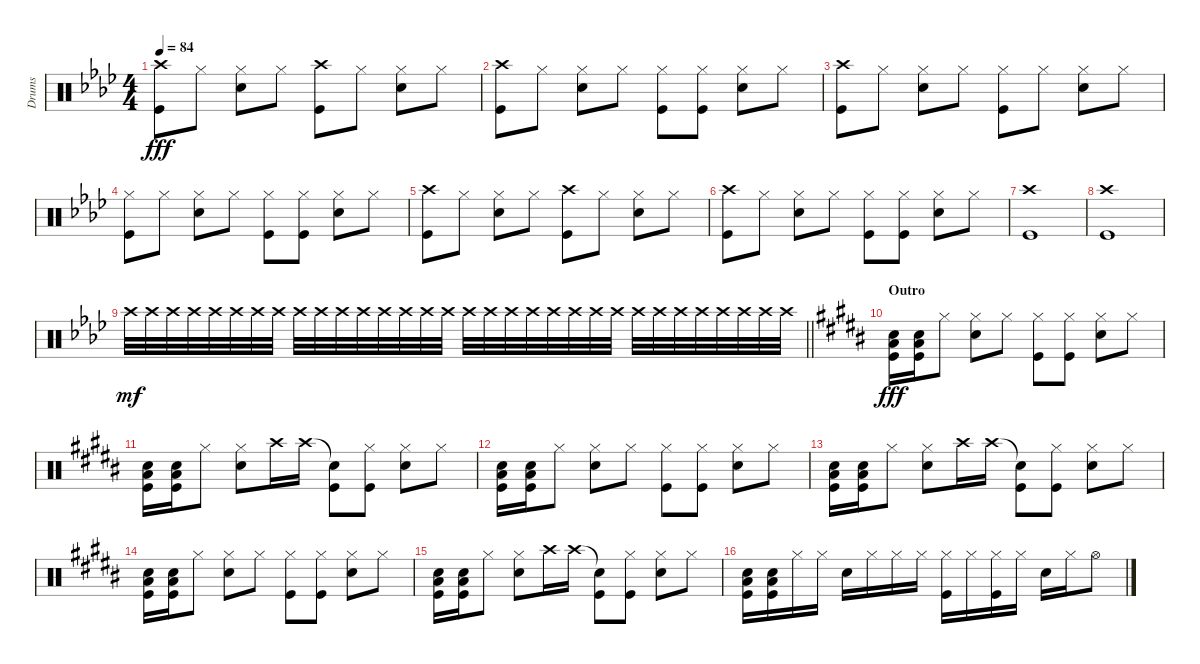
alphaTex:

\track ("Drums" "Drums") {instrument percussion}
\staff {score}
\articulation defaults
\ts (4 4)
\tempo 84
\clef neutral
\ks ab
("Crash high (hit)" "Kick (hit)").8{dy fff} "Hi-Hat (closed)".8 ("Hi-Hat (closed)" "Snare (hit) 2").8 "Hi-Hat (closed)".8 ("Crash high (hit)" "Kick (hit)").8 "Hi-Hat (closed)".8 ("Hi-Hat (closed)" "Snare (hit) 2").8 "Hi-Hat (closed)".8 |
("Crash high (hit)" "Kick (hit)").8 "Hi-Hat (closed)".8 ("Hi-Hat (closed)" "Snare (hit) 2").8 "Hi-Hat (closed)".8 ("Hi-Hat (closed)" "Kick (hit)").8 ("Hi-Hat (closed)" "Kick (hit)").8 ("Hi-Hat (closed)" "Snare (hit) 2").8 "Hi-Hat (closed)".8 |
("Crash high (hit)" "Kick (hit)").8 "Hi-Hat (closed)".8 ("Hi-Hat (closed)" "Snare (hit) 2").8 "Hi-Hat (closed)".8 ("Hi-Hat (closed)" "Kick (hit)").8 "Hi-Hat (closed)".8 ("Hi-Hat (closed)" "Snare (hit) 2").8 "Hi-Hat (closed)".8 |
("Hi-Hat (closed)" "Kick (hit)").8 "Hi-Hat (closed)".8 ("Hi-Hat (closed)" "Snare (hit) 2").8 "Hi-Hat (closed)".8 ("Hi-Hat (closed)" "Kick (hit)").8 ("Hi-Hat (closed)" "Kick (hit)").8 ("Hi-Hat (closed)" "Snare (hit) 2").8 "Hi-Hat (closed)".8 |
("Crash high (hit)" "Kick (hit)").8 "Hi-Hat (closed)".8 ("Hi-Hat (closed)" "Snare (hit) 2").8 "Hi-Hat (closed)".8 ("Crash high (hit)" "Kick (hit)").8 "Hi-Hat (closed)".8 ("Hi-Hat (closed)" "Snare (hit) 2").8 "Hi-Hat (closed)".8 |
("Crash high (hit)" "Kick (hit)").8 "Hi-Hat (closed)".8 ("Hi-Hat (closed)" "Snare (hit) 2").8 "Hi-Hat (closed)".8 ("Hi-Hat (closed)" "Kick (hit)").8 ("Hi-Hat (closed)" "Kick (hit)").8 ("Hi-Hat (closed)" "Snare (hit) 2").8 "Hi-Hat (closed)".8 |
("Crash high (hit)" "Kick (hit)").1 |
("Crash high (hit)" "Kick (hit)").1 |
\barLineRight lightlight "Crash high (hit)".32{dy mf} "Crash high (hit)".32 "Crash high (hit)".32 "Crash high (hit)".32 "Crash high (hit)".32 "Crash high (hit)".32 "Crash high (hit)".32 "Crash high (hit)".32 "Crash high (hit)".32 "Crash high (hit)".32 "Crash high (hit)".32 "Crash high (hit)".32 "Crash high (hit)".32 "Crash high (hit)".32 "Crash high (hit)".32 "Crash high (hit)".32 "Crash high (hit)".32 "Crash high (hit)".32 "Crash high (hit)".32 "Crash high (hit)".32 "Crash high (hit)".32 "Crash high (hit)".32 "Crash high (hit)".32 "Crash high (hit)".32 "Crash high (hit)".32 "Crash high (hit)".32 "Crash high (hit)".32 "Crash high (hit)".32 "Crash high (hit)".32 "Crash high (hit)".32 "Crash high (hit)".32 "Crash high (hit)".32
|
\section ("" "Outro")
\ks b
("Low Floor Tom (hit)" "Snare (hit) 2" "Kick (hit)").16{dy fff} ("Low Floor Tom (hit)" "Snare (hit) 2" "Kick (hit)").16 "Hi-Hat (closed)".8 ("Hi-Hat (closed)" "Snare (hit) 2").8 "Hi-Hat (closed)".8 ("Hi-Hat (closed)" "Kick (hit)").8 ("Hi-Hat (closed)" "Kick (hit)").8 ("Hi-Hat (closed)" "Snare (hit) 2").8 "Hi-Hat (closed)".8 |
("Low Floor Tom (hit)" "Snare (hit) 2" "Kick (hit)").16 ("Low Floor Tom (hit)" "Snare (hit) 2" "Kick (hit)").16 "Hi-Hat (closed)".8 ("Hi-Hat (closed)" "Snare (hit) 2").8 "Crash high (hit)".16 "Crash high (hit)".16 ("Snare (hit)"{t} "Kick (hit)").8 ("Hi-Hat (closed)" "Kick (hit)").8 ("Hi-Hat (closed)" "Snare (hit) 2").8 "Hi-Hat (closed)".8 |
("Low Floor Tom (hit)" "Snare (hit) 2" "Kick (hit)").16 ("Low Floor Tom (hit)" "Snare (hit) 2" "Kick (hit)").16 "Hi-Hat (closed)".8 ("Hi-Hat (closed)" "Snare (hit) 2").8 "Hi-Hat (closed)".8 ("Hi-Hat (closed)" "Kick (hit)").8 ("Hi-Hat (closed)" "Kick (hit)").8 ("Hi-Hat (closed)" "Snare (hit) 2").8 "Hi-Hat (closed)".8 |
("Low Floor Tom (hit)" "Snare (hit) 2" "Kick (hit)").16 ("Low Floor Tom (hit)" "Snare (hit) 2" "Kick (hit)").16 "Hi-Hat (closed)".8 ("Hi-Hat (closed)" "Snare (hit) 2").8 "Crash high (hit)".16 "Crash high (hit)".16 ("Snare (hit)"{t} "Kick (hit)").8 ("Hi-Hat (closed)" "Kick (hit)").8 ("Hi-Hat (closed)" "Snare (hit) 2").8 "Hi-Hat (closed)".8 |
("Low Floor Tom (hit)" "Snare (hit) 2" "Kick (hit)").16 ("Low Floor Tom (hit)" "Snare (hit) 2" "Kick (hit)").16 "Hi-Hat (closed)".8 ("Hi-Hat (closed)" "Snare (hit) 2").8 "Hi-Hat (closed)".8 ("Hi-Hat (closed)" "Kick (hit)").8 ("Hi-Hat (closed)" "Kick (hit)").8 ("Hi-Hat (closed)" "Snare (hit) 2").8 "Hi-Hat (closed)".8 |
("Low Floor Tom (hit)" "Snare (hit) 2" "Kick (hit)").16 ("Low Floor Tom (hit)" "Snare (hit) 2" "Kick (hit)").16 "Hi-Hat (closed)".8 ("Hi-Hat (closed)" "Snare (hit) 2").8 "Crash high (hit)".16 "Crash high (hit)".16 ("Snare (hit)"{t} "Kick (hit)").8 ("Hi-Hat (closed)" "Kick (hit)").8 ("Hi-Hat (closed)" "Snare (hit) 2").8 "Hi-Hat (closed)".8 |
("Low Floor Tom (hit)" "Snare (hit) 2" "Kick (hit)").16 ("Low Floor Tom (hit)" "Snare (hit) 2" "Kick (hit)").16 "Hi-Hat (closed)".16 "Hi-Hat (closed)".16 "Snare (hit) 2".16 "Hi-Hat (closed)".16 "Hi-Hat (closed)".16 "Hi-Hat (closed)".16 ("Hi-Hat (closed)" "Kick (hit)").16 "Hi-Hat (closed)".16 ("Hi-Hat (closed)" "Kick (hit)").16 "Hi-Hat (closed)".16 "Snare (hit) 2".16 "Hi-Hat (closed)".16 "Hi-Hat (open)".8
